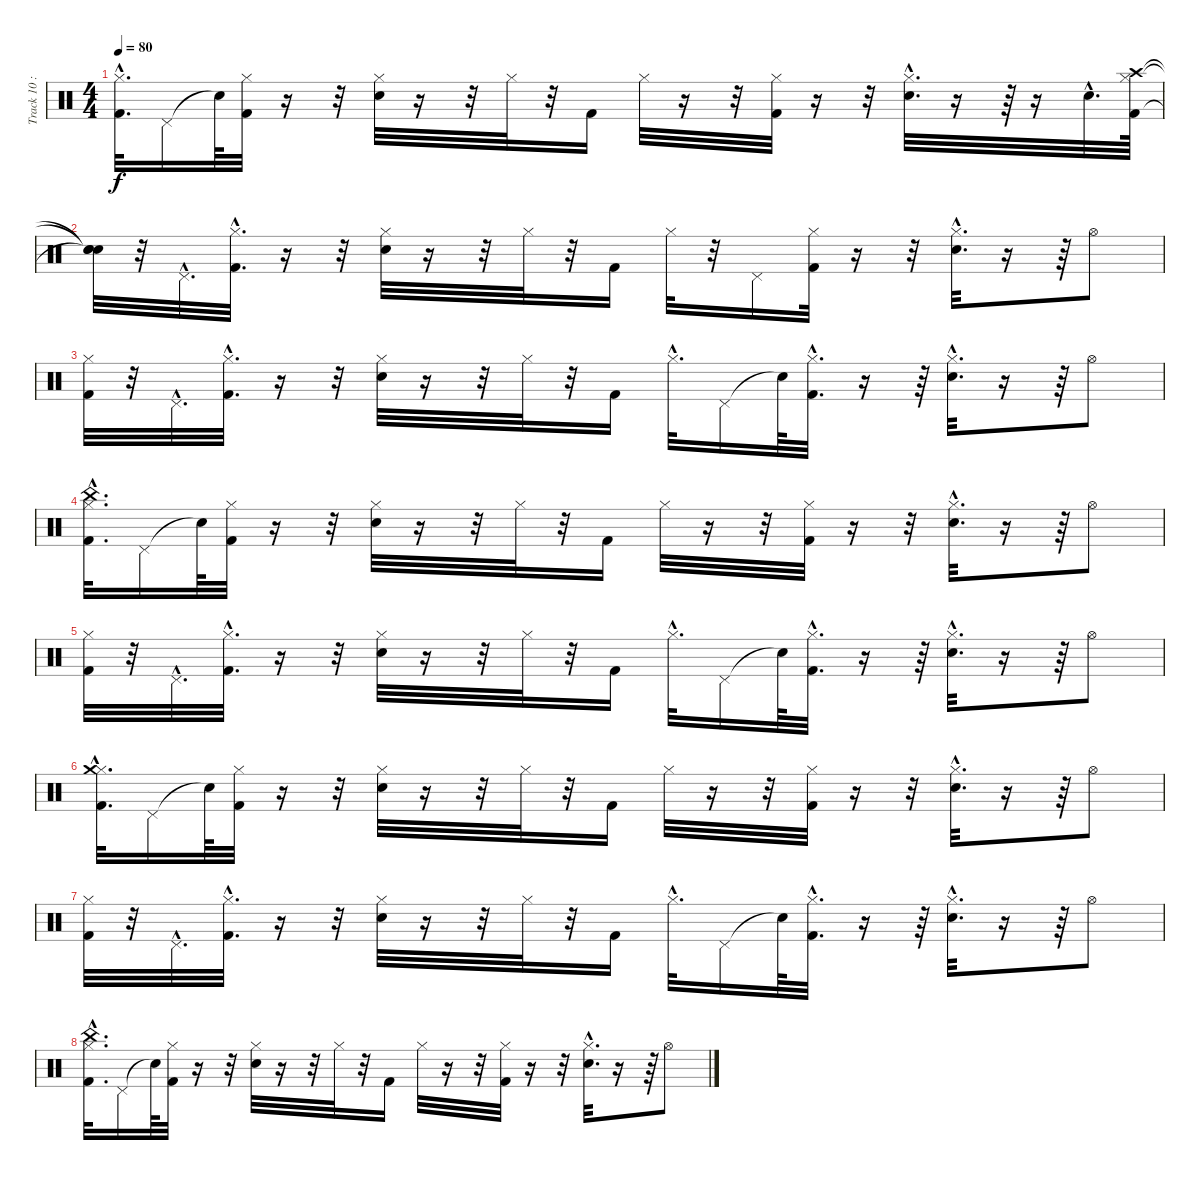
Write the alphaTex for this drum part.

\track ("Track 10 : unspecified" "Track 10 :") {instrument percussion}
\staff {score}
\articulation defaults
\ts (4 4)
\tempo 80
\clef neutral
\ks c
("Hi-Hat (closed)"{hac} "Kick (hit) 2"{hac}).32{d dy f} "Pedal Hi-Hat (hit)".16 "Snare (hit)"{t}.64 ("Hi-Hat (closed)" "Kick (hit) 2").32 r.16 r.32 ("Snare (hit) 2" "Hi-Hat (closed)").32 r.16 r.32 "Hi-Hat (closed)".32 r.32 "Kick (hit) 2".16 "Hi-Hat (closed)".32 r.16 r.32 ("Hi-Hat (closed)" "Kick (hit) 2").32 r.16 r.32 ("Snare (hit) 2"{hac} "Hi-Hat (closed)"{hac}).32{d} r.16 r.64 r.16 "Snare (hit) 2"{hac}.32{d} ("Kick (hit) 2" "Crash high (hit)" "Hi-Hat (closed)").64 |
("Snare (hit)"{t} "Snare (hit)"{t} "Snare (hit)"{t}).32 r.32 "Pedal Hi-Hat (hit)"{hac}.32{d} ("Hi-Hat (closed)"{hac} "Kick (hit) 2"{hac}).32{d} r.16 r.32 ("Hi-Hat (closed)" "Snare (hit) 2").32 r.16 r.32 "Hi-Hat (closed)".32 r.32 "Kick (hit) 2".16 "Hi-Hat (closed)".32 r.32 "Pedal Hi-Hat (hit)".16 ("Hi-Hat (closed)" "Kick (hit) 2").32 r.16 r.32 ("Snare (hit) 2"{hac} "Hi-Hat (closed)"{hac}).32{d} r.16 r.64 "Hi-Hat (open)".8 |
("Kick (hit) 2" "Hi-Hat (closed)").32 r.32 "Pedal Hi-Hat (hit)"{hac}.32{d} ("Kick (hit) 2"{hac} "Hi-Hat (closed)"{hac}).32{d} r.16 r.32 ("Snare (hit) 2" "Hi-Hat (closed)").32 r.16 r.32 "Hi-Hat (closed)".32 r.32 "Kick (hit) 2".16 "Hi-Hat (closed)"{hac}.32{d} "Pedal Hi-Hat (hit)".16 "Snare (hit)"{t}.64 ("Hi-Hat (closed)"{hac} "Kick (hit) 2"{hac}).32{d} r.16 r.64 ("Hi-Hat (closed)"{hac} "Snare (hit) 2"{hac}).32{d} r.16 r.64 "Hi-Hat (open)".8 |
("Kick (hit) 2"{hac} "Hi-Hat (closed)"{hac} "China (hit)"{hac}).32{d} "Pedal Hi-Hat (hit)".16 "Snare (hit)"{t}.64 ("Kick (hit) 2" "Hi-Hat (closed)").32 r.16 r.32 ("Hi-Hat (closed)" "Snare (hit) 2").32 r.16 r.32 "Hi-Hat (closed)".32 r.32 "Kick (hit) 2".16 "Hi-Hat (closed)".32 r.16 r.32 ("Kick (hit) 2" "Hi-Hat (closed)").32 r.16 r.32 ("Hi-Hat (closed)"{hac} "Snare (hit) 2"{hac}).32{d} r.16 r.64 "Hi-Hat (open)".8 |
("Hi-Hat (closed)" "Kick (hit) 2").32 r.32 "Pedal Hi-Hat (hit)"{hac}.32{d} ("Hi-Hat (closed)"{hac} "Kick (hit) 2"{hac}).32{d} r.16 r.32 ("Hi-Hat (closed)" "Snare (hit) 2").32 r.16 r.32 "Hi-Hat (closed)".32 r.32 "Kick (hit) 2".16 "Hi-Hat (closed)"{hac}.32{d} "Pedal Hi-Hat (hit)".16 "Snare (hit)"{t}.64 ("Kick (hit) 2"{hac} "Hi-Hat (closed)"{hac}).32{d} r.16 r.64 ("Snare (hit) 2"{hac} "Hi-Hat (closed)"{hac}).32{d} r.16 r.64 "Hi-Hat (open)".8 |
("Hi-Hat (closed)"{hac} "Crash medium (hit)"{hac} "Kick (hit) 2"{hac}).32{d} "Pedal Hi-Hat (hit)".16 "Snare (hit)"{t}.64 ("Kick (hit) 2" "Hi-Hat (closed)").32 r.16 r.32 ("Snare (hit) 2" "Hi-Hat (closed)").32 r.16 r.32 "Hi-Hat (closed)".32 r.32 "Kick (hit) 2".16 "Hi-Hat (closed)".32 r.16 r.32 ("Kick (hit) 2" "Hi-Hat (closed)").32 r.16 r.32 ("Snare (hit) 2"{hac} "Hi-Hat (closed)"{hac}).32{d} r.16 r.64 "Hi-Hat (open)".8 |
("Kick (hit) 2" "Hi-Hat (closed)").32 r.32 "Pedal Hi-Hat (hit)"{hac}.32{d} ("Hi-Hat (closed)"{hac} "Kick (hit) 2"{hac}).32{d} r.16 r.32 ("Snare (hit) 2" "Hi-Hat (closed)").32 r.16 r.32 "Hi-Hat (closed)".32 r.32 "Kick (hit) 2".16 "Hi-Hat (closed)"{hac}.32{d} "Pedal Hi-Hat (hit)".16 "Snare (hit)"{t}.64 ("Kick (hit) 2"{hac} "Hi-Hat (closed)"{hac}).32{d} r.16 r.64 ("Hi-Hat (closed)"{hac} "Snare (hit) 2"{hac}).32{d} r.16 r.64 "Hi-Hat (open)".8 |
("Kick (hit) 2"{hac} "Hi-Hat (closed)"{hac} "China (hit)"{hac}).32{d} "Pedal Hi-Hat (hit)".16 "Snare (hit)"{t}.64 ("Hi-Hat (closed)" "Kick (hit) 2").32 r.16 r.32 ("Hi-Hat (closed)" "Snare (hit) 2").32 r.16 r.32 "Hi-Hat (closed)".32 r.32 "Kick (hit) 2".16 "Hi-Hat (closed)".32 r.16 r.32 ("Kick (hit) 2" "Hi-Hat (closed)").32 r.16 r.32 ("Snare (hit) 2"{hac} "Hi-Hat (closed)"{hac}).32{d} r.16 r.64 "Hi-Hat (open)".8
